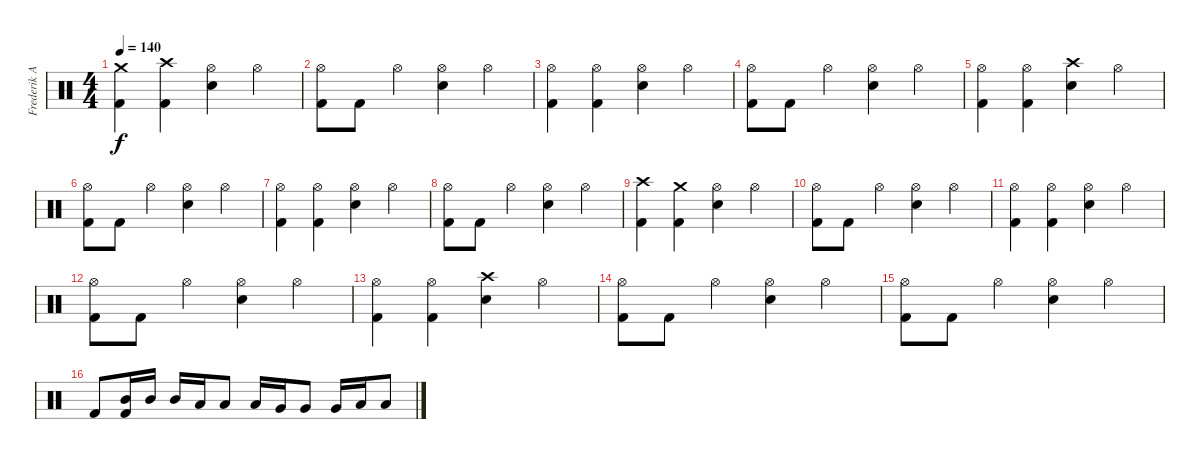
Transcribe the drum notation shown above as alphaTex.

\track ("Frederik Anderson" "Frederik A") {instrument percussion}
\staff {score}
\articulation defaults
\ts (4 4)
\tempo 140
\clef neutral
\ks c
("Crash medium (hit)" "Kick (hit) 2").4{dy f} ("Crash high (hit)" "Kick (hit) 2").4 ("Hi-Hat (open)" "Electric Snare (hit)").4 "Hi-Hat (open)".4 |
("Hi-Hat (open)" "Kick (hit) 2").8 "Kick (hit) 2".8 "Hi-Hat (open)".4 ("Hi-Hat (open)" "Electric Snare (hit)").4 "Hi-Hat (open)".4 |
("Hi-Hat (open)" "Kick (hit) 2").4 ("Hi-Hat (open)" "Kick (hit) 2").4 ("Hi-Hat (open)" "Electric Snare (hit)").4 "Hi-Hat (open)".4 |
("Hi-Hat (open)" "Kick (hit) 2").8 "Kick (hit) 2".8 "Hi-Hat (open)".4 ("Hi-Hat (open)" "Electric Snare (hit)").4 "Hi-Hat (open)".4 |
("Hi-Hat (open)" "Kick (hit) 2").4 ("Hi-Hat (open)" "Kick (hit) 2").4 ("Crash high (hit)" "Electric Snare (hit)").4 "Hi-Hat (open)".4 |
("Hi-Hat (open)" "Kick (hit) 2").8 "Kick (hit) 2".8 "Hi-Hat (open)".4 ("Hi-Hat (open)" "Electric Snare (hit)").4 "Hi-Hat (open)".4 |
("Hi-Hat (open)" "Kick (hit) 2").4 ("Hi-Hat (open)" "Kick (hit) 2").4 ("Hi-Hat (open)" "Electric Snare (hit)").4 "Hi-Hat (open)".4 |
("Hi-Hat (open)" "Kick (hit) 2").8 "Kick (hit) 2".8 "Hi-Hat (open)".4 ("Hi-Hat (open)" "Electric Snare (hit)").4 "Hi-Hat (open)".4 |
("Crash high (hit)" "Kick (hit) 2").4 ("Crash medium (hit)" "Kick (hit) 2").4 ("Hi-Hat (open)" "Electric Snare (hit)").4 "Hi-Hat (open)".4 |
("Hi-Hat (open)" "Kick (hit) 2").8 "Kick (hit) 2".8 "Hi-Hat (open)".4 ("Hi-Hat (open)" "Electric Snare (hit)").4 "Hi-Hat (open)".4 |
("Hi-Hat (open)" "Kick (hit) 2").4 ("Hi-Hat (open)" "Kick (hit) 2").4 ("Hi-Hat (open)" "Electric Snare (hit)").4 "Hi-Hat (open)".4 |
("Hi-Hat (open)" "Kick (hit) 2").8 "Kick (hit) 2".8 "Hi-Hat (open)".4 ("Hi-Hat (open)" "Electric Snare (hit)").4 "Hi-Hat (open)".4 |
("Hi-Hat (open)" "Kick (hit) 2").4 ("Hi-Hat (open)" "Kick (hit) 2").4 ("Crash high (hit)" "Electric Snare (hit)").4 "Hi-Hat (open)".4 |
("Hi-Hat (open)" "Kick (hit) 2").8 "Kick (hit) 2".8 "Hi-Hat (open)".4 ("Hi-Hat (open)" "Electric Snare (hit)").4 "Hi-Hat (open)".4 |
("Hi-Hat (open)" "Kick (hit) 2").8 "Kick (hit) 2".8 "Hi-Hat (open)".4 ("Hi-Hat (open)" "Electric Snare (hit)").4 "Hi-Hat (open)".4 |
"Kick (hit) 2".8 ("Mid Tom (hit)" "Kick (hit) 2").16 "Mid Tom (hit)".16 "Mid Tom (hit)".16 "Low Tom (hit)".16 "Low Tom (hit)".8 "Low Tom (hit)".16 "Very Low Tom (hit)".16 "Very Low Tom (hit)".8 "Very Low Tom (hit)".16 "Low Floor Tom (hit)".16 "Low Floor Tom (hit)".8
